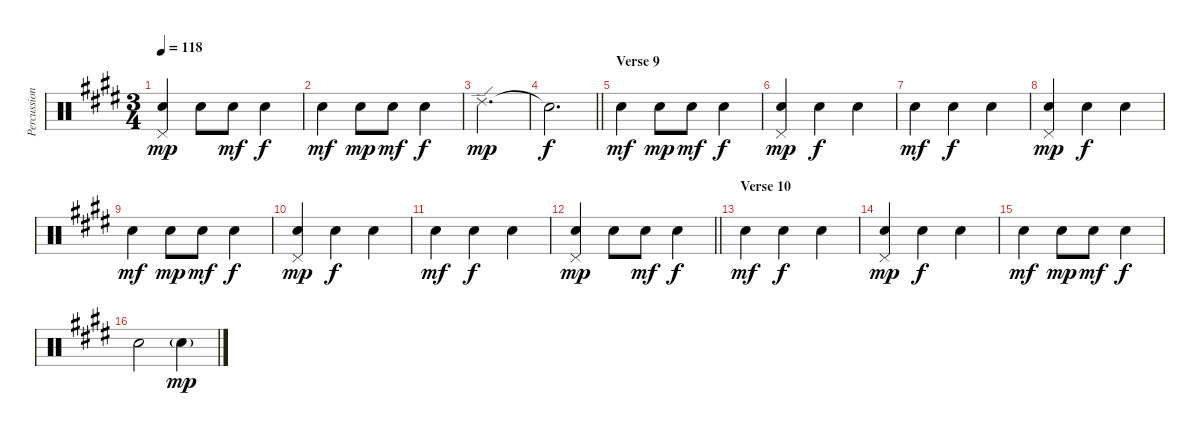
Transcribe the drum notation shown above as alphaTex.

\track ("Percussion" "Percussion") {instrument percussion}
\staff {score}
\articulation defaults
\ts (3 4)
\tempo 118
\clef neutral
\ks e
("Hand Clap (hit)" "Pedal Hi-Hat (hit)").4{dy mp} "Snare (hit) 2".8 "Snare (hit) 2".8{dy mf} "Snare (hit) 2".4{dy f} |
"Snare (hit) 2".4{dy mf} "Snare (hit) 2".8{dy mp} "Snare (hit) 2".8{dy mf} "Hand Clap (hit)".4{dy f} |
"Ride (edge) 2".2{d dy mp} |
\barLineRight lightlight "Snare (hit)"{t}.2{d dy f}
|
\section ("" "Verse 9")
"Snare (hit) 2".4{dy mf} "Snare (hit) 2".8{dy mp} "Snare (hit) 2".8{dy mf} "Snare (hit) 2".4{dy f} |
("Hand Clap (hit)" "Pedal Hi-Hat (hit)").4{dy mp} "Snare (hit) 2".4{dy f} "Snare (hit) 2".4 |
"Snare (hit) 2".4{dy mf} "Snare (hit) 2".4{dy f} "Snare (hit) 2".4 |
("Hand Clap (hit)" "Pedal Hi-Hat (hit)").4{dy mp} "Snare (hit) 2".4{dy f} "Snare (hit) 2".4 |
"Snare (hit) 2".4{dy mf} "Snare (hit) 2".8{dy mp} "Snare (hit) 2".8{dy mf} "Snare (hit) 2".4{dy f} |
("Hand Clap (hit)" "Pedal Hi-Hat (hit)").4{dy mp} "Snare (hit) 2".4{dy f} "Snare (hit) 2".4 |
"Snare (hit) 2".4{dy mf} "Snare (hit) 2".4{dy f} "Snare (hit) 2".4 |
\barLineRight lightlight
("Hand Clap (hit)" "Pedal Hi-Hat (hit)").4{dy mp} "Snare (hit) 2".8 "Snare (hit) 2".8{dy mf} "Hand Clap (hit)".4{dy f} |
\section ("" "Verse 10")
"Snare (hit) 2".4{dy mf} "Snare (hit) 2".4{dy f} "Snare (hit) 2".4 |
("Hand Clap (hit)" "Pedal Hi-Hat (hit)").4{dy mp} "Snare (hit) 2".4{dy f} "Snare (hit) 2".4 |
"Snare (hit) 2".4{dy mf} "Snare (hit) 2".8{dy mp} "Snare (hit) 2".8{dy mf} "Snare (hit) 2".4{dy f} |
"Snare (hit) 2".2 "Electric Snare (hit)"{g}.4{dy mp}
